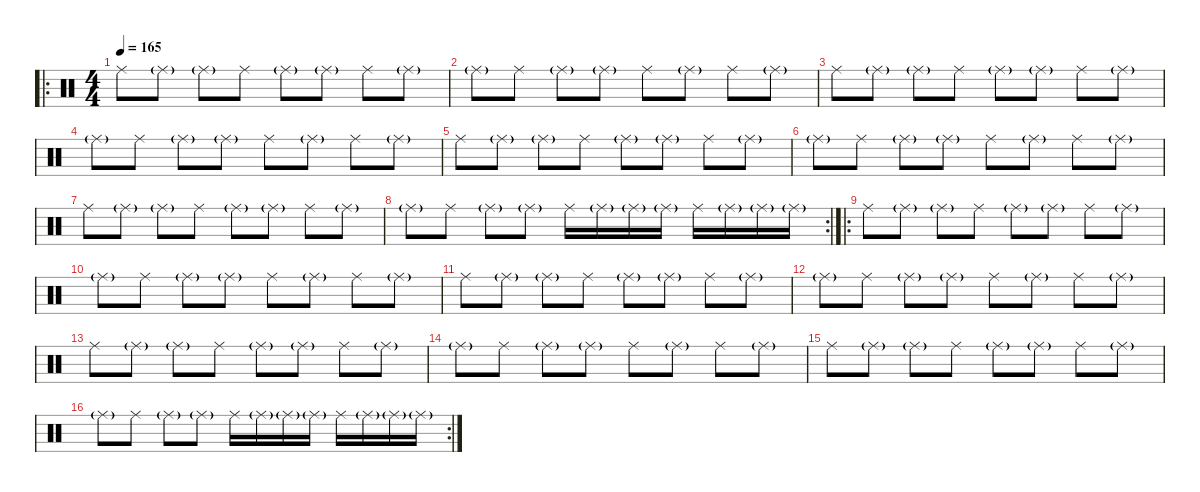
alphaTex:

\defaultSystemsLayout 4
\hideDynamics
\bracketExtendMode nobrackets
\singleTrackTrackNamePolicy hidden
\multiTrackTrackNamePolicy hidden
\firstSystemTrackNameMode fullname
\otherSystemsTrackNameOrientation horizontal
\track ("Marty Chapman (Drums)" "drm.") {instrument percussion}
\staff {score}
\articulation defaults
\ro
\ts (4 4)
\tempo 165
\clef neutral
\ks c "Ride (middle)".8{dy f beam Down} "Ride (middle)"{g}.8{beam Down} "Ride (middle)"{g}.8{beam Down} "Ride (middle)".8{beam Down} "Ride (middle)"{g}.8{beam Down} "Ride (middle)"{g}.8{beam Down} "Ride (middle)".8{beam Down} "Ride (middle)"{g}.8{beam Down}
|
"Ride (middle)"{g}.8{beam Down} "Ride (middle)".8{beam Down} "Ride (middle)"{g}.8{beam Down} "Ride (middle)"{g}.8{beam Down} "Ride (middle)".8{beam Down} "Ride (middle)"{g}.8{beam Down} "Ride (middle)".8{beam Down} "Ride (middle)"{g}.8{beam Down} |
"Ride (middle)".8{beam Down} "Ride (middle)"{g}.8{beam Down} "Ride (middle)"{g}.8{beam Down} "Ride (middle)".8{beam Down} "Ride (middle)"{g}.8{beam Down} "Ride (middle)"{g}.8{beam Down} "Ride (middle)".8{beam Down} "Ride (middle)"{g}.8{beam Down} |
"Ride (middle)"{g}.8{beam Down} "Ride (middle)".8{beam Down} "Ride (middle)"{g}.8{beam Down} "Ride (middle)"{g}.8{beam Down} "Ride (middle)".8{beam Down} "Ride (middle)"{g}.8{beam Down} "Ride (middle)".8{beam Down} "Ride (middle)"{g}.8{beam Down} |
"Ride (middle)".8{beam Down} "Ride (middle)"{g}.8{beam Down} "Ride (middle)"{g}.8{beam Down} "Ride (middle)".8{beam Down} "Ride (middle)"{g}.8{beam Down} "Ride (middle)"{g}.8{beam Down} "Ride (middle)".8{beam Down} "Ride (middle)"{g}.8{beam Down} |
"Ride (middle)"{g}.8{beam Down} "Ride (middle)".8{beam Down} "Ride (middle)"{g}.8{beam Down} "Ride (middle)"{g}.8{beam Down} "Ride (middle)".8{beam Down} "Ride (middle)"{g}.8{beam Down} "Ride (middle)".8{beam Down} "Ride (middle)"{g}.8{beam Down} |
"Ride (middle)".8{beam Down} "Ride (middle)"{g}.8{beam Down} "Ride (middle)"{g}.8{beam Down} "Ride (middle)".8{beam Down} "Ride (middle)"{g}.8{beam Down} "Ride (middle)"{g}.8{beam Down} "Ride (middle)".8{beam Down} "Ride (middle)"{g}.8{beam Down} |
\rc 2 "Ride (middle)"{g}.8{beam Down} "Ride (middle)".8{beam Down} "Ride (middle)"{g}.8{beam Down} "Ride (middle)"{g}.8{beam Down} "Ride (middle)".16{beam Down} "Ride (middle)"{g}.16{beam Down} "Ride (middle)"{g}.16{beam Down} "Ride (middle)"{g}.16{beam Down} "Ride (middle)".16{beam Down} "Ride (middle)"{g}.16{beam Down} "Ride (middle)"{g}.16{beam Down} "Ride (middle)"{g}.16{beam Down}
|
\ro "Ride (middle)".8{beam Down} "Ride (middle)"{g}.8{beam Down} "Ride (middle)"{g}.8{beam Down} "Ride (middle)".8{beam Down} "Ride (middle)"{g}.8{beam Down} "Ride (middle)"{g}.8{beam Down} "Ride (middle)".8{beam Down} "Ride (middle)"{g}.8{beam Down}
|
"Ride (middle)"{g}.8{beam Down} "Ride (middle)".8{beam Down} "Ride (middle)"{g}.8{beam Down} "Ride (middle)"{g}.8{beam Down} "Ride (middle)".8{beam Down} "Ride (middle)"{g}.8{beam Down} "Ride (middle)".8{beam Down} "Ride (middle)"{g}.8{beam Down} |
"Ride (middle)".8{beam Down} "Ride (middle)"{g}.8{beam Down} "Ride (middle)"{g}.8{beam Down} "Ride (middle)".8{beam Down} "Ride (middle)"{g}.8{beam Down} "Ride (middle)"{g}.8{beam Down} "Ride (middle)".8{beam Down} "Ride (middle)"{g}.8{beam Down} |
"Ride (middle)"{g}.8{beam Down} "Ride (middle)".8{beam Down} "Ride (middle)"{g}.8{beam Down} "Ride (middle)"{g}.8{beam Down} "Ride (middle)".8{beam Down} "Ride (middle)"{g}.8{beam Down} "Ride (middle)".8{beam Down} "Ride (middle)"{g}.8{beam Down} |
"Ride (middle)".8{beam Down} "Ride (middle)"{g}.8{beam Down} "Ride (middle)"{g}.8{beam Down} "Ride (middle)".8{beam Down} "Ride (middle)"{g}.8{beam Down} "Ride (middle)"{g}.8{beam Down} "Ride (middle)".8{beam Down} "Ride (middle)"{g}.8{beam Down} |
"Ride (middle)"{g}.8{beam Down} "Ride (middle)".8{beam Down} "Ride (middle)"{g}.8{beam Down} "Ride (middle)"{g}.8{beam Down} "Ride (middle)".8{beam Down} "Ride (middle)"{g}.8{beam Down} "Ride (middle)".8{beam Down} "Ride (middle)"{g}.8{beam Down} |
"Ride (middle)".8{beam Down} "Ride (middle)"{g}.8{beam Down} "Ride (middle)"{g}.8{beam Down} "Ride (middle)".8{beam Down} "Ride (middle)"{g}.8{beam Down} "Ride (middle)"{g}.8{beam Down} "Ride (middle)".8{beam Down} "Ride (middle)"{g}.8{beam Down} |
\rc 2 "Ride (middle)"{g}.8{beam Down} "Ride (middle)".8{beam Down} "Ride (middle)"{g}.8{beam Down} "Ride (middle)"{g}.8{beam Down} "Ride (middle)".16{beam Down} "Ride (middle)"{g}.16{beam Down} "Ride (middle)"{g}.16{beam Down} "Ride (middle)"{g}.16{beam Down} "Ride (middle)".16{beam Down} "Ride (middle)"{g}.16{beam Down} "Ride (middle)"{g}.16{beam Down} "Ride (middle)"{g}.16{beam Down}
